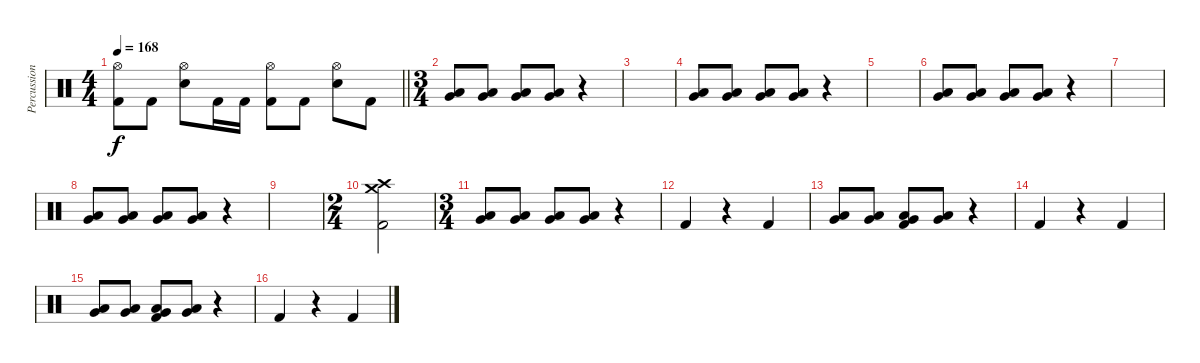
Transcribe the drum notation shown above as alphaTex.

\track ("Percussions" "Percussion") {instrument percussion}
\staff {score}
\articulation defaults
\ts (4 4)
\tempo 168
\clef neutral
\barLineRight lightlight
\ks c
("Hi-Hat (open)" "Kick (hit) 2").8{dy f} "Kick (hit) 2".8 ("Hi-Hat (open)" "Snare (hit) 2").8 "Kick (hit) 2".16 "Kick (hit) 2".16 ("Hi-Hat (open)" "Kick (hit) 2").8 "Kick (hit) 2".8 ("Hi-Hat (open)" "Snare (hit) 2").8 "Kick (hit) 2".8 |
\ts (3 4)
("Low Tom (hit)" "Very Low Tom (hit)").8 ("Low Tom (hit)" "Very Low Tom (hit)").8 ("Low Tom (hit)" "Very Low Tom (hit)").8 ("Low Tom (hit)" "Very Low Tom (hit)").8 r.4 |
|
("Low Tom (hit)" "Very Low Tom (hit)").8 ("Low Tom (hit)" "Very Low Tom (hit)").8 ("Low Tom (hit)" "Very Low Tom (hit)").8 ("Low Tom (hit)" "Very Low Tom (hit)").8 r.4 |
|
("Low Tom (hit)" "Very Low Tom (hit)").8 ("Low Tom (hit)" "Very Low Tom (hit)").8 ("Low Tom (hit)" "Very Low Tom (hit)").8 ("Low Tom (hit)" "Very Low Tom (hit)").8 r.4 |
|
("Low Tom (hit)" "Very Low Tom (hit)").8 ("Low Tom (hit)" "Very Low Tom (hit)").8 ("Low Tom (hit)" "Very Low Tom (hit)").8 ("Low Tom (hit)" "Very Low Tom (hit)").8 r.4 |
|
\ts (2 4)
("Crash medium (hit)" "Crash high (hit)" "Kick (hit) 2").2 |
\ts (3 4)
("Low Tom (hit)" "Very Low Tom (hit)").8 ("Low Tom (hit)" "Very Low Tom (hit)").8 ("Low Tom (hit)" "Very Low Tom (hit)").8 ("Low Tom (hit)" "Very Low Tom (hit)").8 r.4 |
"Kick (hit) 2".4 r.4 "Kick (hit) 2".4 |
("Low Tom (hit)" "Very Low Tom (hit)").8 ("Low Tom (hit)" "Very Low Tom (hit)").8 ("Low Tom (hit)" "Very Low Tom (hit)" "Kick (hit) 2").8 ("Low Tom (hit)" "Very Low Tom (hit)").8 r.4 |
"Kick (hit) 2".4 r.4 "Kick (hit) 2".4 |
("Low Tom (hit)" "Very Low Tom (hit)").8 ("Low Tom (hit)" "Very Low Tom (hit)").8 ("Low Tom (hit)" "Very Low Tom (hit)" "Kick (hit) 2").8 ("Low Tom (hit)" "Very Low Tom (hit)").8 r.4 |
"Kick (hit) 2".4 r.4 "Kick (hit) 2".4
